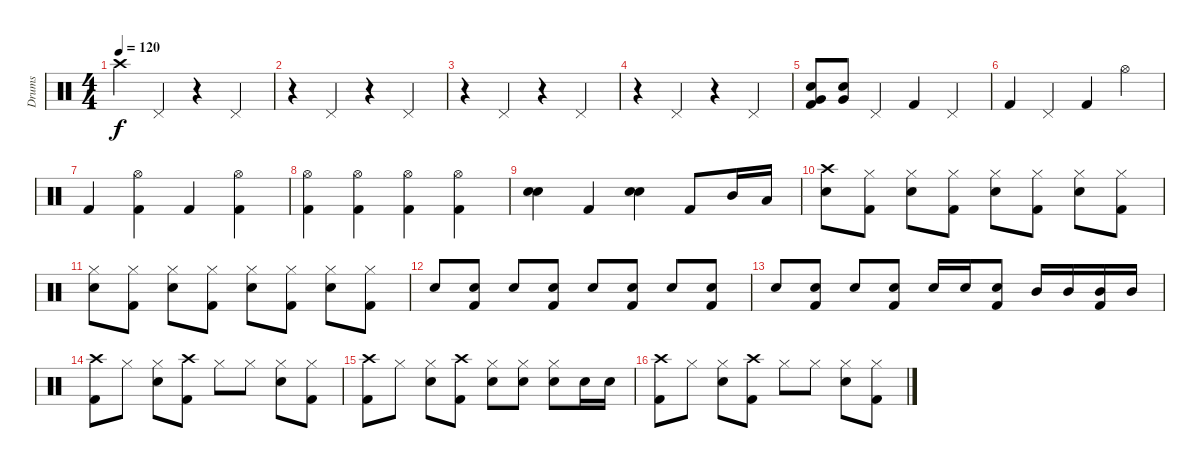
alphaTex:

\track ("Drums" "Drums") {instrument percussion}
\staff {score}
\articulation defaults
\ts (4 4)
\tempo 120
\clef neutral
\ks c "Crash high (hit)".4{dy f} "Pedal Hi-Hat (hit)".4
r.4 "Pedal Hi-Hat (hit)".4 |
r.4 "Pedal Hi-Hat (hit)".4 r.4 "Pedal Hi-Hat (hit)".4 |
r.4 "Pedal Hi-Hat (hit)".4 r.4 "Pedal Hi-Hat (hit)".4 |
r.4 "Pedal Hi-Hat (hit)".4 r.4 "Pedal Hi-Hat (hit)".4 |
("Very Low Tom (hit)" "Snare (hit) 2" "Kick (hit) 2").8 ("Very Low Tom (hit)" "Snare (hit) 2").8 "Pedal Hi-Hat (hit)".4 "Kick (hit) 2".4 "Pedal Hi-Hat (hit)".4 |
"Kick (hit) 2".4 "Pedal Hi-Hat (hit)".4 "Kick (hit) 2".4 "Hi-Hat (open)".4 |
"Kick (hit) 2".4 ("Hi-Hat (open)" "Kick (hit) 2").4 "Kick (hit) 2".4 ("Hi-Hat (open)" "Kick (hit) 2").4 |
("Hi-Hat (open)" "Kick (hit) 2").4 ("Hi-Hat (open)" "Kick (hit) 2").4 ("Hi-Hat (open)" "Kick (hit) 2").4 ("Hi-Hat (open)" "Kick (hit) 2").4 |
("Snare (hit) 2" "Snare (hit) 2").4 "Kick (hit) 2".4 ("Snare (hit) 2" "Snare (hit) 2").4 "Kick (hit) 2".8 "Mid Tom (hit)".16 "Low Tom (hit)".16 |
("Crash high (hit)" "Snare (hit) 2").8 ("Hi-Hat (closed)" "Kick (hit) 2").8 ("Hi-Hat (closed)" "Snare (hit) 2").8 ("Hi-Hat (closed)" "Kick (hit) 2").8 ("Hi-Hat (closed)" "Snare (hit) 2").8 ("Hi-Hat (closed)" "Kick (hit) 2").8 ("Hi-Hat (closed)" "Snare (hit) 2").8 ("Hi-Hat (closed)" "Kick (hit) 2").8 |
("Hi-Hat (closed)" "Snare (hit) 2").8 ("Hi-Hat (closed)" "Kick (hit) 2").8 ("Hi-Hat (closed)" "Snare (hit) 2").8 ("Hi-Hat (closed)" "Kick (hit) 2").8 ("Hi-Hat (closed)" "Snare (hit) 2").8 ("Hi-Hat (closed)" "Kick (hit) 2").8 ("Hi-Hat (closed)" "Snare (hit) 2").8 ("Hi-Hat (closed)" "Kick (hit) 2").8 |
"Snare (hit) 2".8 ("Snare (hit) 2" "Kick (hit) 2").8 "Snare (hit) 2".8 ("Snare (hit) 2" "Kick (hit) 2").8 "Snare (hit) 2".8 ("Snare (hit) 2" "Kick (hit) 2").8 "Snare (hit) 2".8 ("Snare (hit) 2" "Kick (hit) 2").8 |
"Snare (hit) 2".8 ("Snare (hit) 2" "Kick (hit) 2").8 "Snare (hit) 2".8 ("Snare (hit) 2" "Kick (hit) 2").8 "Snare (hit) 2".16 "Snare (hit) 2".16 ("Snare (hit) 2" "Kick (hit) 2").8 "Mid Tom (hit)".16 "Mid Tom (hit)".16 ("Mid Tom (hit)" "Kick (hit) 2").16 "Mid Tom (hit)".16 |
("Crash high (hit)" "Kick (hit) 2").8 "Hi-Hat (closed)".8 ("Hi-Hat (closed)" "Snare (hit) 2").8 ("Crash high (hit)" "Kick (hit) 2").8 "Hi-Hat (closed)".8 "Hi-Hat (closed)".8 ("Hi-Hat (closed)" "Snare (hit) 2").8 ("Hi-Hat (closed)" "Kick (hit) 2").8 |
("Crash high (hit)" "Kick (hit) 2").8 "Hi-Hat (closed)".8 ("Hi-Hat (closed)" "Snare (hit) 2").8 ("Crash high (hit)" "Kick (hit) 2").8 ("Hi-Hat (closed)" "Snare (hit) 2").8 ("Hi-Hat (closed)" "Snare (hit) 2").8 ("Hi-Hat (closed)" "Snare (hit) 2").8 "Snare (hit) 2".16 "Snare (hit) 2".16 |
("Crash high (hit)" "Kick (hit) 2").8 "Hi-Hat (closed)".8 ("Hi-Hat (closed)" "Snare (hit) 2").8 ("Crash high (hit)" "Kick (hit) 2").8 "Hi-Hat (closed)".8 "Hi-Hat (closed)".8 ("Hi-Hat (closed)" "Snare (hit) 2").8 ("Hi-Hat (closed)" "Kick (hit) 2").8
